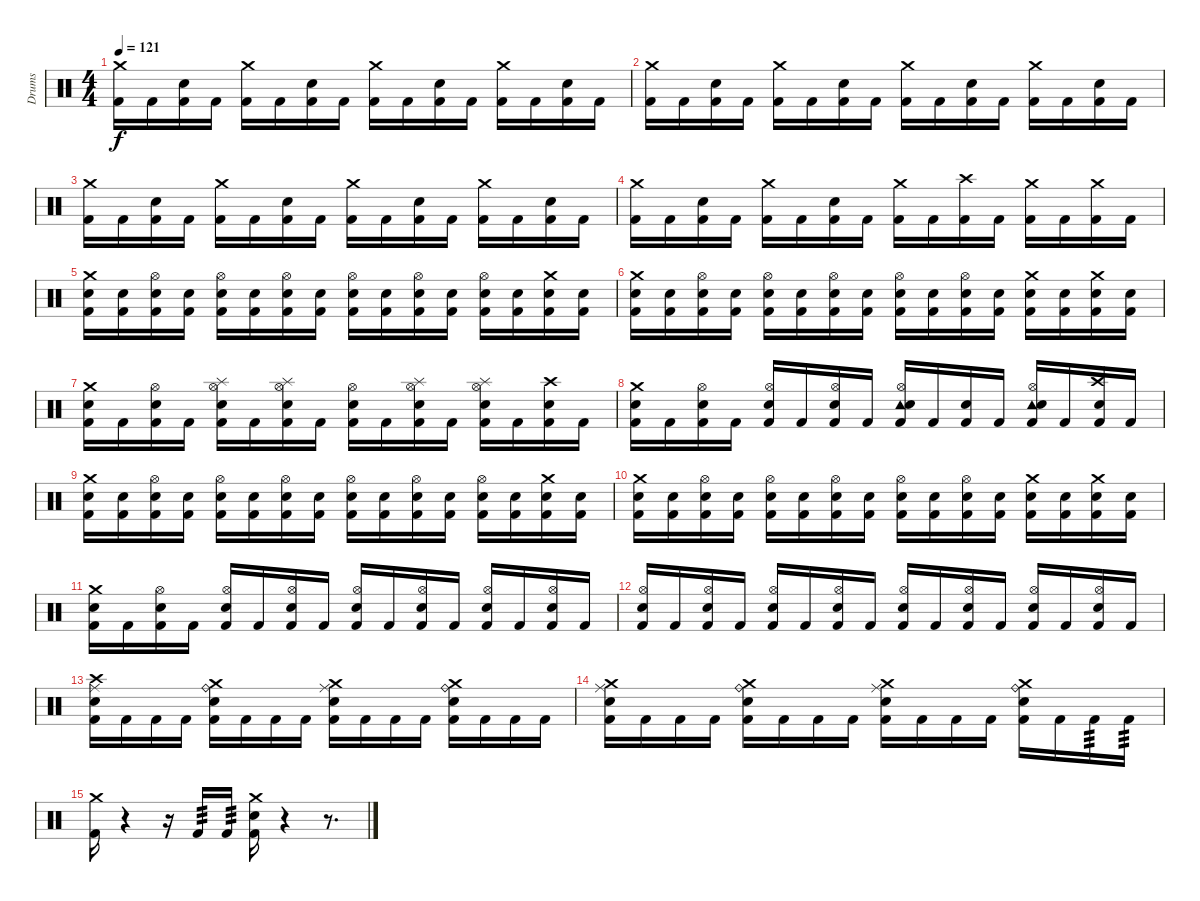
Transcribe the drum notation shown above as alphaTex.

\track ("Drums" "Drums") {instrument percussion}
\staff {score}
\articulation defaults
\ts (4 4)
\tempo 121
\clef neutral
\ks c
("Crash medium (hit)" "Kick (hit) 2").16{dy f} "Kick (hit) 2".16 ("Electric Snare (hit)" "Kick (hit) 2").16 "Kick (hit) 2".16 ("Crash medium (hit)" "Kick (hit) 2").16 "Kick (hit) 2".16 ("Electric Snare (hit)" "Kick (hit) 2").16 "Kick (hit) 2".16 ("Crash medium (hit)" "Kick (hit) 2").16 "Kick (hit) 2".16 ("Electric Snare (hit)" "Kick (hit) 2").16 "Kick (hit) 2".16 ("Crash medium (hit)" "Kick (hit) 2").16 "Kick (hit) 2".16 ("Electric Snare (hit)" "Kick (hit) 2").16 "Kick (hit) 2".16 |
("Crash medium (hit)" "Kick (hit) 2").16 "Kick (hit) 2".16 ("Electric Snare (hit)" "Kick (hit) 2").16 "Kick (hit) 2".16 ("Crash medium (hit)" "Kick (hit) 2").16 "Kick (hit) 2".16 ("Electric Snare (hit)" "Kick (hit) 2").16 "Kick (hit) 2".16 ("Crash medium (hit)" "Kick (hit) 2").16 "Kick (hit) 2".16 ("Electric Snare (hit)" "Kick (hit) 2").16 "Kick (hit) 2".16 ("Crash medium (hit)" "Kick (hit) 2").16 "Kick (hit) 2".16 ("Electric Snare (hit)" "Kick (hit) 2").16 "Kick (hit) 2".16 |
("Crash medium (hit)" "Kick (hit) 2").16 "Kick (hit) 2".16 ("Electric Snare (hit)" "Kick (hit) 2").16 "Kick (hit) 2".16 ("Crash medium (hit)" "Kick (hit) 2").16 "Kick (hit) 2".16 ("Electric Snare (hit)" "Kick (hit) 2").16 "Kick (hit) 2".16 ("Crash medium (hit)" "Kick (hit) 2").16 "Kick (hit) 2".16 ("Electric Snare (hit)" "Kick (hit) 2").16 "Kick (hit) 2".16 ("Crash medium (hit)" "Kick (hit) 2").16 "Kick (hit) 2".16 ("Electric Snare (hit)" "Kick (hit) 2").16 "Kick (hit) 2".16 |
("Crash medium (hit)" "Kick (hit) 2").16 "Kick (hit) 2".16 ("Electric Snare (hit)" "Kick (hit) 2").16 "Kick (hit) 2".16 ("Crash medium (hit)" "Kick (hit) 2").16 "Kick (hit) 2".16 ("Electric Snare (hit)" "Kick (hit) 2").16 "Kick (hit) 2".16 ("Crash medium (hit)" "Kick (hit) 2").16 "Kick (hit) 2".16 ("Crash high (hit)" "Kick (hit) 2").16 "Kick (hit) 2".16 ("Crash medium (hit)" "Kick (hit) 2").16 "Kick (hit) 2".16 ("Crash medium (hit)" "Kick (hit) 2").16 "Kick (hit) 2".16 |
("Crash medium (hit)" "Electric Snare (hit)" "Kick (hit) 2").16 ("Electric Snare (hit)" "Kick (hit) 2").16 ("Hi-Hat (open)" "Electric Snare (hit)" "Kick (hit) 2").16 ("Electric Snare (hit)" "Kick (hit) 2").16 ("Hi-Hat (open)" "Electric Snare (hit)" "Kick (hit) 2").16 ("Electric Snare (hit)" "Kick (hit) 2").16 ("Hi-Hat (open)" "Electric Snare (hit)" "Kick (hit) 2").16 ("Electric Snare (hit)" "Kick (hit) 2").16 ("Hi-Hat (open)" "Electric Snare (hit)" "Kick (hit) 2").16 ("Electric Snare (hit)" "Kick (hit) 2").16 ("Hi-Hat (open)" "Electric Snare (hit)" "Kick (hit) 2").16 ("Electric Snare (hit)" "Kick (hit) 2").16 ("Hi-Hat (open)" "Electric Snare (hit)" "Kick (hit) 2").16 ("Electric Snare (hit)" "Kick (hit) 2").16 ("Crash medium (hit)" "Electric Snare (hit)" "Kick (hit) 2").16 ("Electric Snare (hit)" "Kick (hit) 2").16 |
("Crash medium (hit)" "Electric Snare (hit)" "Kick (hit) 2").16 ("Electric Snare (hit)" "Kick (hit) 2").16 ("Hi-Hat (open)" "Electric Snare (hit)" "Kick (hit) 2").16 ("Electric Snare (hit)" "Kick (hit) 2").16 ("Hi-Hat (open)" "Electric Snare (hit)" "Kick (hit) 2").16 ("Electric Snare (hit)" "Kick (hit) 2").16 ("Hi-Hat (open)" "Electric Snare (hit)" "Kick (hit) 2").16 ("Electric Snare (hit)" "Kick (hit) 2").16 ("Hi-Hat (open)" "Electric Snare (hit)" "Kick (hit) 2").16 ("Electric Snare (hit)" "Kick (hit) 2").16 ("Hi-Hat (open)" "Electric Snare (hit)" "Kick (hit) 2").16 ("Electric Snare (hit)" "Kick (hit) 2").16 ("Crash medium (hit)" "Electric Snare (hit)" "Kick (hit) 2").16 ("Electric Snare (hit)" "Kick (hit) 2").16 ("Crash medium (hit)" "Electric Snare (hit)" "Kick (hit) 2").16 ("Electric Snare (hit)" "Kick (hit) 2").16 |
("Crash medium (hit)" "Snare (hit) 2" "Kick (hit) 2").16 "Kick (hit) 2".16 ("Hi-Hat (open)" "Snare (hit) 2" "Kick (hit) 2").16 "Kick (hit) 2".16 ("Hi-Hat (open)" "Splash (hit)" "Snare (hit) 2" "Kick (hit) 2").16 "Kick (hit) 2".16 ("Hi-Hat (open)" "Splash (hit)" "Snare (hit) 2" "Kick (hit) 2").16 "Kick (hit) 2".16 ("Hi-Hat (open)" "Snare (hit) 2" "Kick (hit) 2").16 "Kick (hit) 2".16 ("Hi-Hat (open)" "Splash (hit)" "Snare (hit) 2" "Kick (hit) 2").16 "Kick (hit) 2".16 ("Hi-Hat (open)" "Splash (hit)" "Snare (hit) 2" "Kick (hit) 2").16 "Kick (hit) 2".16 ("Crash high (hit)" "Snare (hit) 2" "Kick (hit) 2").16 "Kick (hit) 2".16 |
("Crash medium (hit)" "Snare (hit) 2" "Kick (hit) 2").16 "Kick (hit) 2".16 ("Hi-Hat (open)" "Snare (hit) 2" "Kick (hit) 2").16 "Kick (hit) 2".16 ("Hi-Hat (open)" "Snare (hit) 2" "Kick (hit) 2").16 "Kick (hit) 2".16 ("Hi-Hat (open)" "Snare (hit) 2" "Kick (hit) 2").16 "Kick (hit) 2".16 ("Hi-Hat (open)" "Tambourine (hit)" "Snare (hit) 2" "Kick (hit) 2").16 "Kick (hit) 2".16 ("Snare (hit) 2" "Kick (hit) 2").16 "Kick (hit) 2".16 ("Hi-Hat (open)" "Tambourine (hit)" "Snare (hit) 2" "Kick (hit) 2").16 "Kick (hit) 2".16 ("Crash high (hit)" "Snare (hit) 2" "Kick (hit) 2").16 "Kick (hit) 2".16 |
("Crash medium (hit)" "Electric Snare (hit)" "Kick (hit) 2").16 ("Electric Snare (hit)" "Kick (hit) 2").16 ("Hi-Hat (open)" "Electric Snare (hit)" "Kick (hit) 2").16 ("Electric Snare (hit)" "Kick (hit) 2").16 ("Hi-Hat (open)" "Electric Snare (hit)" "Kick (hit) 2").16 ("Electric Snare (hit)" "Kick (hit) 2").16 ("Hi-Hat (open)" "Electric Snare (hit)" "Kick (hit) 2").16 ("Electric Snare (hit)" "Kick (hit) 2").16 ("Hi-Hat (open)" "Electric Snare (hit)" "Kick (hit) 2").16 ("Electric Snare (hit)" "Kick (hit) 2").16 ("Hi-Hat (open)" "Electric Snare (hit)" "Kick (hit) 2").16 ("Electric Snare (hit)" "Kick (hit) 2").16 ("Hi-Hat (open)" "Electric Snare (hit)" "Kick (hit) 2").16 ("Electric Snare (hit)" "Kick (hit) 2").16 ("Crash medium (hit)" "Electric Snare (hit)" "Kick (hit) 2").16 ("Electric Snare (hit)" "Kick (hit) 2").16 |
("Crash medium (hit)" "Electric Snare (hit)" "Kick (hit) 2").16 ("Electric Snare (hit)" "Kick (hit) 2").16 ("Hi-Hat (open)" "Electric Snare (hit)" "Kick (hit) 2").16 ("Electric Snare (hit)" "Kick (hit) 2").16 ("Hi-Hat (open)" "Electric Snare (hit)" "Kick (hit) 2").16 ("Electric Snare (hit)" "Kick (hit) 2").16 ("Hi-Hat (open)" "Electric Snare (hit)" "Kick (hit) 2").16 ("Electric Snare (hit)" "Kick (hit) 2").16 ("Hi-Hat (open)" "Electric Snare (hit)" "Kick (hit) 2").16 ("Electric Snare (hit)" "Kick (hit) 2").16 ("Hi-Hat (open)" "Electric Snare (hit)" "Kick (hit) 2").16 ("Electric Snare (hit)" "Kick (hit) 2").16 ("Crash medium (hit)" "Electric Snare (hit)" "Kick (hit) 2").16 ("Electric Snare (hit)" "Kick (hit) 2").16 ("Crash medium (hit)" "Electric Snare (hit)" "Kick (hit) 2").16 ("Electric Snare (hit)" "Kick (hit) 2").16 |
("Crash medium (hit)" "Snare (hit) 2" "Kick (hit) 2").16 "Kick (hit) 2".16 ("Hi-Hat (open)" "Snare (hit) 2" "Kick (hit) 2").16 "Kick (hit) 2".16 ("Hi-Hat (open)" "Snare (hit) 2" "Kick (hit) 2").16 "Kick (hit) 2".16 ("Hi-Hat (open)" "Snare (hit) 2" "Kick (hit) 2").16 "Kick (hit) 2".16 ("Hi-Hat (open)" "Snare (hit) 2" "Kick (hit) 2").16 "Kick (hit) 2".16 ("Hi-Hat (open)" "Snare (hit) 2" "Kick (hit) 2").16 "Kick (hit) 2".16 ("Hi-Hat (open)" "Snare (hit) 2" "Kick (hit) 2").16 "Kick (hit) 2".16 ("Hi-Hat (open)" "Snare (hit) 2" "Kick (hit) 2").16 "Kick (hit) 2".16 |
("Hi-Hat (open)" "Snare (hit) 2" "Kick (hit) 2").16 "Kick (hit) 2".16 ("Hi-Hat (open)" "Snare (hit) 2" "Kick (hit) 2").16 "Kick (hit) 2".16 ("Hi-Hat (open)" "Snare (hit) 2" "Kick (hit) 2").16 "Kick (hit) 2".16 ("Hi-Hat (open)" "Snare (hit) 2" "Kick (hit) 2").16 "Kick (hit) 2".16 ("Hi-Hat (open)" "Snare (hit) 2" "Kick (hit) 2").16 "Kick (hit) 2".16 ("Hi-Hat (open)" "Snare (hit) 2" "Kick (hit) 2").16 "Kick (hit) 2".16 ("Hi-Hat (open)" "Snare (hit) 2" "Kick (hit) 2").16 "Kick (hit) 2".16 ("Hi-Hat (open)" "Snare (hit) 2" "Kick (hit) 2").16 "Kick (hit) 2".16 |
("Crash high (hit)" "Ride (middle)" "Electric Snare (hit)" "Kick (hit) 2").16 "Kick (hit) 2".16 "Kick (hit) 2".16 "Kick (hit) 2".16 ("Crash medium (hit)" "Ride (bell)" "Electric Snare (hit)" "Kick (hit) 2").16 "Kick (hit) 2".16 "Kick (hit) 2".16 "Kick (hit) 2".16 ("Crash medium (hit)" "Ride (middle)" "Electric Snare (hit)" "Kick (hit) 2").16 "Kick (hit) 2".16 "Kick (hit) 2".16 "Kick (hit) 2".16 ("Crash medium (hit)" "Ride (bell)" "Electric Snare (hit)" "Kick (hit) 2").16 "Kick (hit) 2".16 "Kick (hit) 2".16 "Kick (hit) 2".16 |
("Crash medium (hit)" "Ride (middle)" "Electric Snare (hit)" "Kick (hit) 2").16 "Kick (hit) 2".16 "Kick (hit) 2".16 "Kick (hit) 2".16 ("Crash medium (hit)" "Ride (bell)" "Electric Snare (hit)" "Kick (hit) 2").16 "Kick (hit) 2".16 "Kick (hit) 2".16 "Kick (hit) 2".16 ("Crash medium (hit)" "Ride (middle)" "Electric Snare (hit)" "Kick (hit) 2").16 "Kick (hit) 2".16 "Kick (hit) 2".16 "Kick (hit) 2".16 ("Crash medium (hit)" "Ride (bell)" "Electric Snare (hit)" "Kick (hit) 2").16 "Kick (hit) 2".16 "Kick (hit) 2".16{tp 3} "Kick (hit) 2".16{tp 3} |
("Crash medium (hit)" "Kick (hit) 2").16 r.4 r.16 "Kick (hit) 2".16{tp 3} "Kick (hit) 2".16{tp 3} ("Crash medium (hit)" "Electric Snare (hit)" "Kick (hit) 2").16 r.4 r.8{d}
